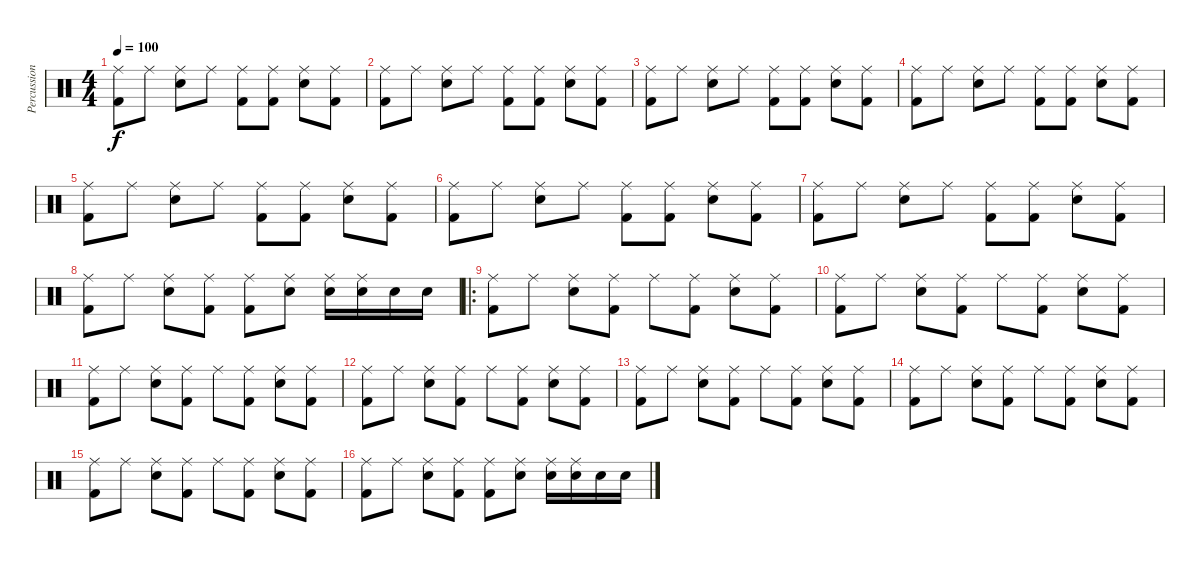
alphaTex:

\track ("Percussion" "Percussion") {instrument percussion}
\staff {score}
\articulation defaults
\ts (4 4)
\tempo 100
\clef neutral
\ks c
("Kick (hit) 2" "Ride (middle)").8{dy f} "Ride (middle)".8 ("Snare (hit) 2" "Ride (middle)").8 "Ride (middle)".8 ("Kick (hit) 2" "Ride (middle)").8 ("Kick (hit) 2" "Ride (middle)").8 ("Snare (hit) 2" "Ride (middle)").8 ("Kick (hit) 2" "Ride (middle)").8 |
("Kick (hit) 2" "Ride (middle)").8 "Ride (middle)".8 ("Snare (hit) 2" "Ride (middle)").8 "Ride (middle)".8 ("Kick (hit) 2" "Ride (middle)").8 ("Kick (hit) 2" "Ride (middle)").8 ("Snare (hit) 2" "Ride (middle)").8 ("Kick (hit) 2" "Ride (middle)").8 |
("Kick (hit) 2" "Ride (middle)").8 "Ride (middle)".8 ("Snare (hit) 2" "Ride (middle)").8 "Ride (middle)".8 ("Kick (hit) 2" "Ride (middle)").8 ("Kick (hit) 2" "Ride (middle)").8 ("Snare (hit) 2" "Ride (middle)").8 ("Kick (hit) 2" "Ride (middle)").8 |
("Kick (hit) 2" "Ride (middle)").8 "Ride (middle)".8 ("Snare (hit) 2" "Ride (middle)").8 "Ride (middle)".8 ("Kick (hit) 2" "Ride (middle)").8 ("Kick (hit) 2" "Ride (middle)").8 ("Snare (hit) 2" "Ride (middle)").8 ("Kick (hit) 2" "Ride (middle)").8 |
("Kick (hit) 2" "Ride (middle)").8 "Ride (middle)".8 ("Snare (hit) 2" "Ride (middle)").8 "Ride (middle)".8 ("Kick (hit) 2" "Ride (middle)").8 ("Kick (hit) 2" "Ride (middle)").8 ("Snare (hit) 2" "Ride (middle)").8 ("Kick (hit) 2" "Ride (middle)").8 |
("Kick (hit) 2" "Ride (middle)").8 "Ride (middle)".8 ("Snare (hit) 2" "Ride (middle)").8 "Ride (middle)".8 ("Kick (hit) 2" "Ride (middle)").8 ("Kick (hit) 2" "Ride (middle)").8 ("Snare (hit) 2" "Ride (middle)").8 ("Kick (hit) 2" "Ride (middle)").8 |
("Kick (hit) 2" "Ride (middle)").8 "Ride (middle)".8 ("Snare (hit) 2" "Ride (middle)").8 "Ride (middle)".8 ("Kick (hit) 2" "Ride (middle)").8 ("Kick (hit) 2" "Ride (middle)").8 ("Snare (hit) 2" "Ride (middle)").8 ("Kick (hit) 2" "Ride (middle)").8 |
("Kick (hit) 2" "Ride (middle)").8 "Ride (middle)".8 ("Snare (hit) 2" "Ride (middle)").8 ("Kick (hit) 2" "Ride (middle)").8 ("Kick (hit) 2" "Ride (middle)").8 ("Snare (hit) 2" "Ride (middle)").8 ("Snare (hit) 2" "Ride (middle)").16 ("Snare (hit) 2" "Ride (middle)").16 "Snare (hit) 2".16 "Snare (hit) 2".16 |
\ro
("Kick (hit) 2" "Ride (middle)").8 "Ride (middle)".8 ("Snare (hit) 2" "Ride (middle)").8 ("Kick (hit) 2" "Ride (middle)").8 "Ride (middle)".8 ("Kick (hit) 2" "Ride (middle)").8 ("Snare (hit) 2" "Ride (middle)").8 ("Kick (hit) 2" "Ride (middle)").8 |
("Kick (hit) 2" "Ride (middle)").8 "Ride (middle)".8 ("Snare (hit) 2" "Ride (middle)").8 ("Kick (hit) 2" "Ride (middle)").8 "Ride (middle)".8 ("Kick (hit) 2" "Ride (middle)").8 ("Snare (hit) 2" "Ride (middle)").8 ("Kick (hit) 2" "Ride (middle)").8 |
("Kick (hit) 2" "Ride (middle)").8 "Ride (middle)".8 ("Snare (hit) 2" "Ride (middle)").8 ("Kick (hit) 2" "Ride (middle)").8 "Ride (middle)".8 ("Kick (hit) 2" "Ride (middle)").8 ("Snare (hit) 2" "Ride (middle)").8 ("Kick (hit) 2" "Ride (middle)").8 |
("Kick (hit) 2" "Ride (middle)").8 "Ride (middle)".8 ("Snare (hit) 2" "Ride (middle)").8 ("Kick (hit) 2" "Ride (middle)").8 "Ride (middle)".8 ("Kick (hit) 2" "Ride (middle)").8 ("Snare (hit) 2" "Ride (middle)").8 ("Kick (hit) 2" "Ride (middle)").8 |
("Kick (hit) 2" "Ride (middle)").8 "Ride (middle)".8 ("Snare (hit) 2" "Ride (middle)").8 ("Kick (hit) 2" "Ride (middle)").8 "Ride (middle)".8 ("Kick (hit) 2" "Ride (middle)").8 ("Snare (hit) 2" "Ride (middle)").8 ("Kick (hit) 2" "Ride (middle)").8 |
("Kick (hit) 2" "Ride (middle)").8 "Ride (middle)".8 ("Snare (hit) 2" "Ride (middle)").8 ("Kick (hit) 2" "Ride (middle)").8 "Ride (middle)".8 ("Kick (hit) 2" "Ride (middle)").8 ("Snare (hit) 2" "Ride (middle)").8 ("Kick (hit) 2" "Ride (middle)").8 |
("Kick (hit) 2" "Ride (middle)").8 "Ride (middle)".8 ("Snare (hit) 2" "Ride (middle)").8 ("Kick (hit) 2" "Ride (middle)").8 "Ride (middle)".8 ("Kick (hit) 2" "Ride (middle)").8 ("Snare (hit) 2" "Ride (middle)").8 ("Kick (hit) 2" "Ride (middle)").8 |
("Kick (hit) 2" "Ride (middle)").8 "Ride (middle)".8 ("Snare (hit) 2" "Ride (middle)").8 ("Kick (hit) 2" "Ride (middle)").8 ("Kick (hit) 2" "Ride (middle)").8 ("Snare (hit) 2" "Ride (middle)").8 ("Snare (hit) 2" "Ride (middle)").16 ("Snare (hit) 2" "Ride (middle)").16 "Snare (hit) 2".16 "Snare (hit) 2".16
